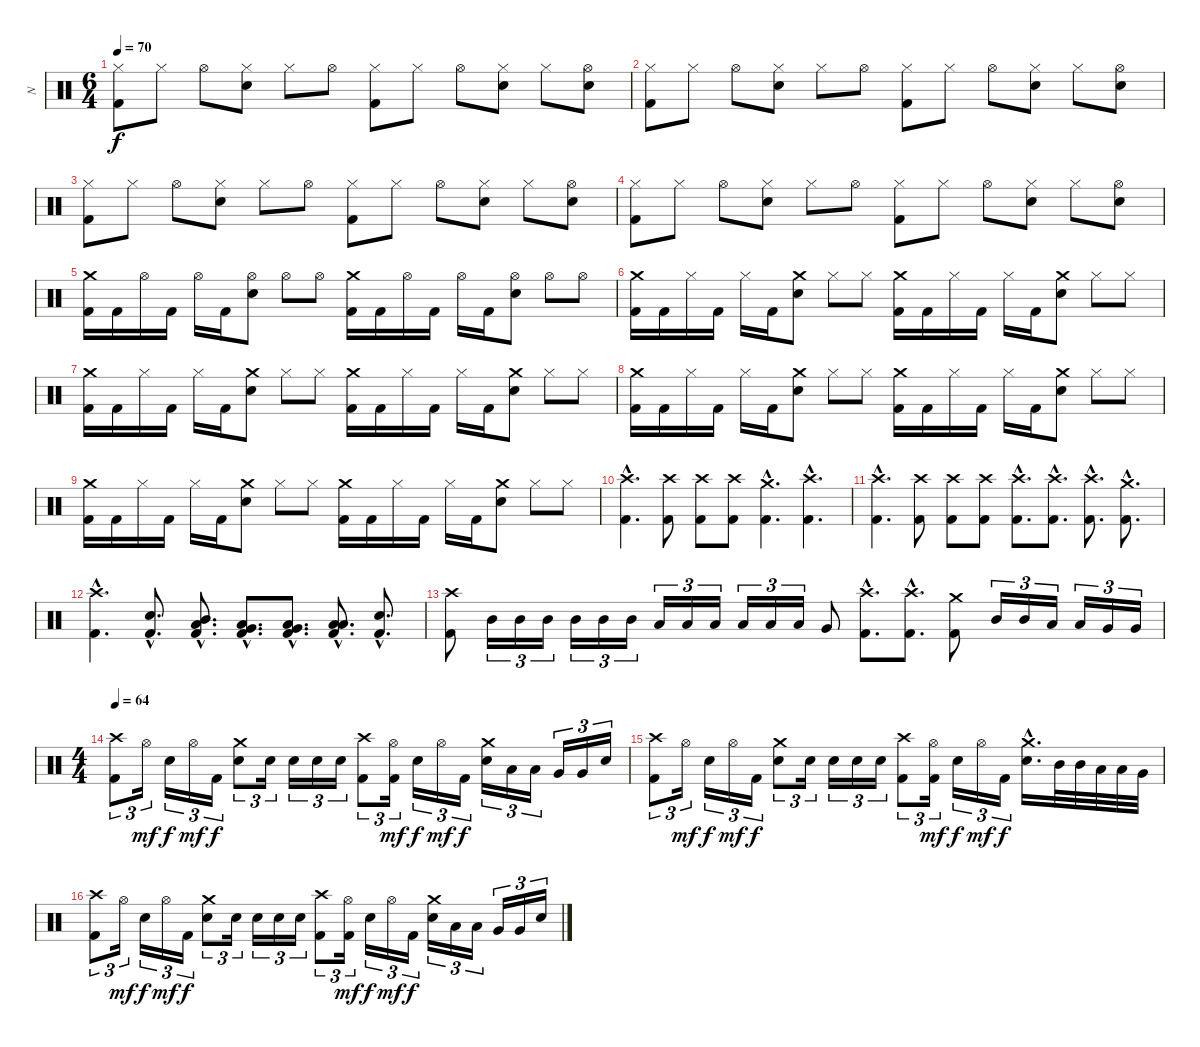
\track ("N" "N") {instrument percussion}
\staff {score}
\articulation defaults
\ts (6 4)
\section ("" " ")
\tempo 70
\clef neutral
\ks c
("Hi-Hat (closed)" "Kick (hit) 2").8{dy f} "Hi-Hat (closed)".8 "Hi-Hat (open)".8 ("Hi-Hat (closed)" "Electric Snare (hit)").8 "Hi-Hat (closed)".8 "Hi-Hat (open)".8 ("Hi-Hat (closed)" "Kick (hit) 2").8 "Hi-Hat (closed)".8 "Hi-Hat (open)".8 ("Hi-Hat (closed)" "Electric Snare (hit)").8 "Hi-Hat (closed)".8 ("Hi-Hat (open)" "Electric Snare (hit)").8 |
("Hi-Hat (closed)" "Kick (hit) 2").8 "Hi-Hat (closed)".8 "Hi-Hat (open)".8 ("Hi-Hat (closed)" "Electric Snare (hit)").8 "Hi-Hat (closed)".8 "Hi-Hat (open)".8 ("Hi-Hat (closed)" "Kick (hit) 2").8 "Hi-Hat (closed)".8 "Hi-Hat (open)".8 ("Hi-Hat (closed)" "Electric Snare (hit)").8 "Hi-Hat (closed)".8 ("Hi-Hat (open)" "Electric Snare (hit)").8 |
("Hi-Hat (closed)" "Kick (hit) 2").8 "Hi-Hat (closed)".8 "Hi-Hat (open)".8 ("Hi-Hat (closed)" "Electric Snare (hit)").8 "Hi-Hat (closed)".8 "Hi-Hat (open)".8 ("Hi-Hat (closed)" "Kick (hit) 2").8 "Hi-Hat (closed)".8 "Hi-Hat (open)".8 ("Hi-Hat (closed)" "Electric Snare (hit)").8 "Hi-Hat (closed)".8 ("Hi-Hat (open)" "Electric Snare (hit)").8 |
("Hi-Hat (closed)" "Kick (hit) 2").8 "Hi-Hat (closed)".8 "Hi-Hat (open)".8 ("Hi-Hat (closed)" "Electric Snare (hit)").8 "Hi-Hat (closed)".8 "Hi-Hat (open)".8 ("Hi-Hat (closed)" "Kick (hit) 2").8 "Hi-Hat (closed)".8 "Hi-Hat (open)".8 ("Hi-Hat (closed)" "Electric Snare (hit)").8 "Hi-Hat (closed)".8 ("Hi-Hat (open)" "Electric Snare (hit)").8 |
("Crash medium (hit)" "Kick (hit) 2").16 "Kick (hit) 2".16 "Hi-Hat (open)".16 "Kick (hit) 2".16 "Hi-Hat (open)".16 "Kick (hit) 2".16 ("Hi-Hat (open)" "Electric Snare (hit)").8 "Hi-Hat (open)".8 "Hi-Hat (open)".8 ("Crash medium (hit)" "Kick (hit) 2").16 "Kick (hit) 2".16 "Hi-Hat (open)".16 "Kick (hit) 2".16 "Hi-Hat (open)".16 "Kick (hit) 2".16 ("Hi-Hat (open)" "Electric Snare (hit)").8 "Hi-Hat (open)".8 "Hi-Hat (open)".8 |
("Crash medium (hit)" "Kick (hit) 2").16 "Kick (hit) 2".16 "Hi-Hat (closed)".16 "Kick (hit) 2".16 "Hi-Hat (closed)".16 "Kick (hit) 2".16 ("Crash medium (hit)" "Electric Snare (hit)").8 "Hi-Hat (closed)".8 "Hi-Hat (closed)".8 ("Crash medium (hit)" "Kick (hit) 2").16 "Kick (hit) 2".16 "Hi-Hat (closed)".16 "Kick (hit) 2".16 "Hi-Hat (closed)".16 "Kick (hit) 2".16 ("Crash medium (hit)" "Electric Snare (hit)").8 "Hi-Hat (closed)".8 "Hi-Hat (closed)".8 |
("Crash medium (hit)" "Kick (hit) 2").16 "Kick (hit) 2".16 "Hi-Hat (closed)".16 "Kick (hit) 2".16 "Hi-Hat (closed)".16 "Kick (hit) 2".16 ("Crash medium (hit)" "Electric Snare (hit)").8 "Hi-Hat (closed)".8 "Hi-Hat (closed)".8 ("Crash medium (hit)" "Kick (hit) 2").16 "Kick (hit) 2".16 "Hi-Hat (closed)".16 "Kick (hit) 2".16 "Hi-Hat (closed)".16 "Kick (hit) 2".16 ("Crash medium (hit)" "Electric Snare (hit)").8 "Hi-Hat (closed)".8 "Hi-Hat (closed)".8 |
("Crash medium (hit)" "Kick (hit) 2").16 "Kick (hit) 2".16 "Hi-Hat (closed)".16 "Kick (hit) 2".16 "Hi-Hat (closed)".16 "Kick (hit) 2".16 ("Crash medium (hit)" "Electric Snare (hit)").8 "Hi-Hat (closed)".8 "Hi-Hat (closed)".8 ("Crash medium (hit)" "Kick (hit) 2").16 "Kick (hit) 2".16 "Hi-Hat (closed)".16 "Kick (hit) 2".16 "Hi-Hat (closed)".16 "Kick (hit) 2".16 ("Crash medium (hit)" "Electric Snare (hit)").8 "Hi-Hat (closed)".8 "Hi-Hat (closed)".8 |
("Crash medium (hit)" "Kick (hit) 2").16 "Kick (hit) 2".16 "Hi-Hat (closed)".16 "Kick (hit) 2".16 "Hi-Hat (closed)".16 "Kick (hit) 2".16 ("Crash medium (hit)" "Electric Snare (hit)").8 "Hi-Hat (closed)".8 "Hi-Hat (closed)".8 ("Crash medium (hit)" "Kick (hit) 2").16 "Kick (hit) 2".16 "Hi-Hat (closed)".16 "Kick (hit) 2".16 "Hi-Hat (closed)".16 "Kick (hit) 2".16 ("Crash medium (hit)" "Electric Snare (hit)").8 "Hi-Hat (closed)".8 "Hi-Hat (closed)".8 |
\section ("" " ")
("Crash high (hit)"{hac} "Kick (hit) 2"{hac}).4{d} ("Crash high (hit)" "Kick (hit) 2").8 ("Crash high (hit)" "Kick (hit) 2").8 ("Crash high (hit)" "Kick (hit) 2").8 ("Crash medium (hit)"{hac} "Kick (hit) 2"{hac}).4{d} ("Crash high (hit)"{hac} "Kick (hit) 2"{hac}).4{d} |
("Crash high (hit)"{hac} "Kick (hit) 2"{hac}).4{d} ("Crash high (hit)" "Kick (hit) 2").8 ("Crash high (hit)" "Kick (hit) 2").8 ("Crash high (hit)" "Kick (hit) 2").8 ("Crash high (hit)"{hac} "Kick (hit) 2"{hac}).8{d} ("Crash high (hit)"{hac} "Kick (hit) 2"{hac}).8{d} ("Crash high (hit)"{hac} "Kick (hit) 2"{hac}).8{d} ("Crash medium (hit)"{hac} "Kick (hit) 2"{hac}).8{d} |
("Crash high (hit)"{hac} "Kick (hit) 2"{hac}).4{d} ("Electric Snare (hit)"{hac} "Kick (hit) 2"{hac}).8{d} ("Low Tom (hit)"{hac} "Mid Tom (hit)"{hac} "Kick (hit) 2"{hac}).8{d} ("Very Low Tom (hit)"{hac} "Low Tom (hit)"{hac} "Kick (hit) 2"{hac}).8{d} ("Low Floor Tom (hit)"{hac} "Very Low Tom (hit)"{hac} "Kick (hit) 2"{hac}).8{d} ("Low Floor Tom (hit)"{hac} "Low Floor Tom (hit)"{hac} "Kick (hit) 2"{hac}).8{d} ("Electric Snare (hit)"{hac} "Kick (hit) 2"{hac}).8{d} |
("Crash high (hit)" "Kick (hit) 2").8 "Mid Tom (hit)".16{tu (3 2)} "Mid Tom (hit)".16{tu (3 2)} "Mid Tom (hit)".16{tu (3 2)} "Mid Tom (hit)".16{tu (3 2)} "Mid Tom (hit)".16{tu (3 2)} "Mid Tom (hit)".16{tu (3 2)} "Low Tom (hit)".16{tu (3 2)} "Low Tom (hit)".16{tu (3 2)} "Low Tom (hit)".16{tu (3 2)} "Low Tom (hit)".16{tu (3 2)} "Low Tom (hit)".16{tu (3 2)} "Low Tom (hit)".16{tu (3 2)} "Very Low Tom (hit)".8 ("Crash high (hit)"{hac} "Kick (hit) 2"{hac}).8{d} ("Crash high (hit)"{hac} "Kick (hit) 2"{hac}).8{d} ("Crash medium (hit)" "Kick (hit) 2").8 "Mid Tom (hit)".16{tu (3 2)} "Mid Tom (hit)".16{tu (3 2)} "Low Tom (hit)".16{tu (3 2)} "Low Tom (hit)".16{tu (3 2)} "Very Low Tom (hit)".16{tu (3 2)} "Very Low Tom (hit)".16{tu (3 2)} |
\ts (4 4)
\section ("" " ")
\tempo 64
("Crash high (hit)" "Kick (hit) 2").8{tu (3 2)} "Hi-Hat (open)".16{tu (3 2) dy mf} "Electric Snare (hit)".16{tu (3 2) dy f} "Hi-Hat (open)".16{tu (3 2) dy mf} "Kick (hit) 2".16{tu (3 2) dy f} ("Crash medium (hit)" "Electric Snare (hit)").8{tu (3 2)} "Electric Snare (hit)".16{tu (3 2)} "Electric Snare (hit)".16{tu (3 2)} "Electric Snare (hit)".16{tu (3 2)} "Electric Snare (hit)".16{tu (3 2)} ("Crash high (hit)" "Kick (hit) 2").8{tu (3 2)} ("Hi-Hat (open)" "Kick (hit) 2").16{tu (3 2) dy mf} "Electric Snare (hit)".16{tu (3 2) dy f} "Hi-Hat (open)".16{tu (3 2) dy mf} "Kick (hit) 2".16{tu (3 2) dy f} ("Crash medium (hit)" "Electric Snare (hit)").16{tu (3 2)} "Low Tom (hit)".16{tu (3 2)} "Low Tom (hit)".16{tu (3 2)} "Very Low Tom (hit)".16{tu (3 2)} "Very Low Tom (hit)".16{tu (3 2)} "Electric Snare (hit)".16{tu (3 2)} |
("Crash high (hit)" "Kick (hit) 2").8{tu (3 2)} "Hi-Hat (open)".16{tu (3 2) dy mf} "Electric Snare (hit)".16{tu (3 2) dy f} "Hi-Hat (open)".16{tu (3 2) dy mf} "Kick (hit) 2".16{tu (3 2) dy f} ("Crash medium (hit)" "Electric Snare (hit)").8{tu (3 2)} "Electric Snare (hit)".16{tu (3 2)} "Electric Snare (hit)".16{tu (3 2)} "Electric Snare (hit)".16{tu (3 2)} "Electric Snare (hit)".16{tu (3 2)} ("Crash high (hit)" "Kick (hit) 2").8{tu (3 2)} ("Hi-Hat (open)" "Kick (hit) 2").16{tu (3 2) dy mf} "Electric Snare (hit)".16{tu (3 2) dy f} "Hi-Hat (open)".16{tu (3 2) dy mf} "Kick (hit) 2".16{tu (3 2) dy f} ("Crash medium (hit)"{hac} "Electric Snare (hit)"{hac}).16{d} "Mid Tom (hit)".32 "Mid Tom (hit)".32 "Low Tom (hit)".32 "Low Tom (hit)".32 "Very Low Tom (hit)".32 |
("Crash high (hit)" "Kick (hit) 2").8{tu (3 2)} "Hi-Hat (open)".16{tu (3 2) dy mf} "Electric Snare (hit)".16{tu (3 2) dy f} "Hi-Hat (open)".16{tu (3 2) dy mf} "Kick (hit) 2".16{tu (3 2) dy f} ("Crash medium (hit)" "Electric Snare (hit)").8{tu (3 2)} "Electric Snare (hit)".16{tu (3 2)} "Electric Snare (hit)".16{tu (3 2)} "Electric Snare (hit)".16{tu (3 2)} "Electric Snare (hit)".16{tu (3 2)} ("Crash high (hit)" "Kick (hit) 2").8{tu (3 2)} ("Hi-Hat (open)" "Kick (hit) 2").16{tu (3 2) dy mf} "Electric Snare (hit)".16{tu (3 2) dy f} "Hi-Hat (open)".16{tu (3 2) dy mf} "Kick (hit) 2".16{tu (3 2) dy f} ("Crash medium (hit)" "Electric Snare (hit)").16{tu (3 2)} "Low Tom (hit)".16{tu (3 2)} "Low Tom (hit)".16{tu (3 2)} "Very Low Tom (hit)".16{tu (3 2)} "Very Low Tom (hit)".16{tu (3 2)} "Electric Snare (hit)".16{tu (3 2)}
